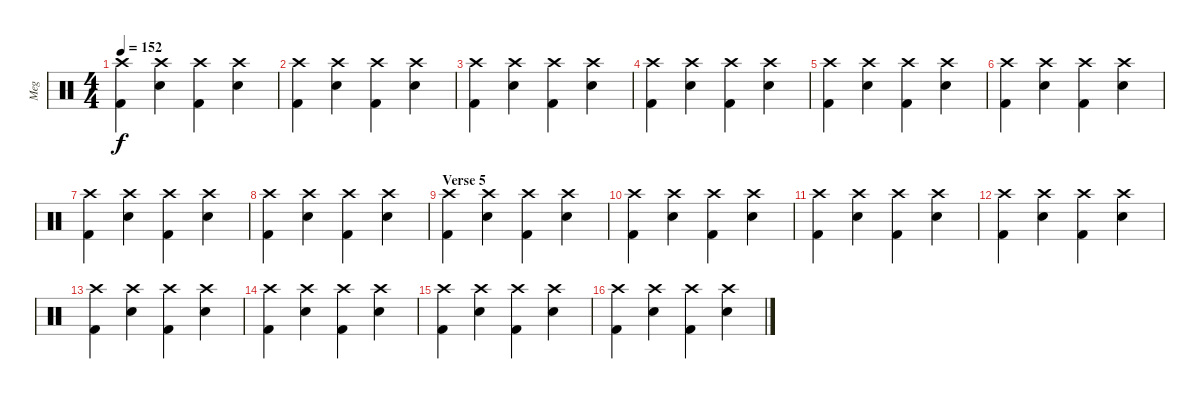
\track ("Meg" "Meg") {instrument percussion}
\staff {score}
\articulation defaults
\ts (4 4)
\tempo 152
\clef neutral
\ks c
("Crash high (hit)" "Kick (hit) 2").4{dy f} ("Crash high (hit)" "Electric Snare (hit)").4 ("Crash high (hit)" "Kick (hit) 2").4 ("Crash high (hit)" "Electric Snare (hit)").4 |
("Crash high (hit)" "Kick (hit) 2").4 ("Crash high (hit)" "Electric Snare (hit)").4 ("Crash high (hit)" "Kick (hit) 2").4 ("Crash high (hit)" "Electric Snare (hit)").4 |
("Crash high (hit)" "Kick (hit) 2").4 ("Crash high (hit)" "Electric Snare (hit)").4 ("Crash high (hit)" "Kick (hit) 2").4 ("Crash high (hit)" "Electric Snare (hit)").4 |
("Crash high (hit)" "Kick (hit) 2").4 ("Crash high (hit)" "Electric Snare (hit)").4 ("Crash high (hit)" "Kick (hit) 2").4 ("Crash high (hit)" "Electric Snare (hit)").4 |
("Crash high (hit)" "Kick (hit) 2").4 ("Crash high (hit)" "Electric Snare (hit)").4 ("Crash high (hit)" "Kick (hit) 2").4 ("Crash high (hit)" "Electric Snare (hit)").4 |
("Crash high (hit)" "Kick (hit) 2").4 ("Crash high (hit)" "Electric Snare (hit)").4 ("Crash high (hit)" "Kick (hit) 2").4 ("Crash high (hit)" "Electric Snare (hit)").4 |
("Crash high (hit)" "Kick (hit) 2").4 ("Crash high (hit)" "Electric Snare (hit)").4 ("Crash high (hit)" "Kick (hit) 2").4 ("Crash high (hit)" "Electric Snare (hit)").4 |
("Crash high (hit)" "Kick (hit) 2").4 ("Crash high (hit)" "Electric Snare (hit)").4 ("Crash high (hit)" "Kick (hit) 2").4 ("Crash high (hit)" "Electric Snare (hit)").4 |
\section ("" "Verse 5")
("Crash high (hit)" "Kick (hit) 2").4 ("Crash high (hit)" "Electric Snare (hit)").4 ("Crash high (hit)" "Kick (hit) 2").4 ("Crash high (hit)" "Electric Snare (hit)").4 |
("Crash high (hit)" "Kick (hit) 2").4 ("Crash high (hit)" "Electric Snare (hit)").4 ("Crash high (hit)" "Kick (hit) 2").4 ("Crash high (hit)" "Electric Snare (hit)").4 |
("Crash high (hit)" "Kick (hit) 2").4 ("Crash high (hit)" "Electric Snare (hit)").4 ("Crash high (hit)" "Kick (hit) 2").4 ("Crash high (hit)" "Electric Snare (hit)").4 |
("Crash high (hit)" "Kick (hit) 2").4 ("Crash high (hit)" "Electric Snare (hit)").4 ("Crash high (hit)" "Kick (hit) 2").4 ("Crash high (hit)" "Electric Snare (hit)").4 |
("Crash high (hit)" "Kick (hit) 2").4 ("Crash high (hit)" "Electric Snare (hit)").4 ("Crash high (hit)" "Kick (hit) 2").4 ("Crash high (hit)" "Electric Snare (hit)").4 |
("Crash high (hit)" "Kick (hit) 2").4 ("Crash high (hit)" "Electric Snare (hit)").4 ("Crash high (hit)" "Kick (hit) 2").4 ("Crash high (hit)" "Electric Snare (hit)").4 |
("Crash high (hit)" "Kick (hit) 2").4 ("Crash high (hit)" "Electric Snare (hit)").4 ("Crash high (hit)" "Kick (hit) 2").4 ("Crash high (hit)" "Electric Snare (hit)").4 |
("Crash high (hit)" "Kick (hit) 2").4 ("Crash high (hit)" "Electric Snare (hit)").4 ("Crash high (hit)" "Kick (hit) 2").4 ("Crash high (hit)" "Electric Snare (hit)").4
